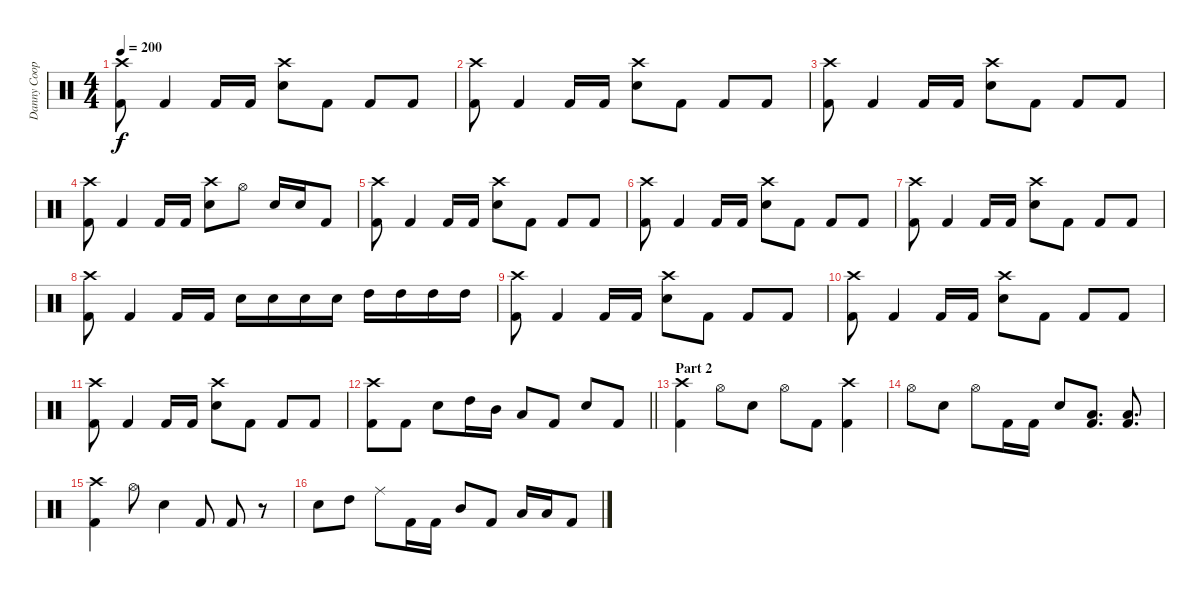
\track ("Danny Cooper" "Danny Coop") {instrument percussion}
\staff {score}
\articulation defaults
\ts (4 4)
\tempo 200
\clef neutral
\ks c
("Crash high (hit)" "Kick (hit) 2").8{dy f} "Kick (hit) 2".4 "Kick (hit) 2".16 "Kick (hit) 2".16 ("Crash high (hit)" "Snare (hit) 2").8 "Kick (hit) 2".8 "Kick (hit) 2".8 "Kick (hit) 2".8 |
("Crash high (hit)" "Kick (hit) 2").8 "Kick (hit) 2".4 "Kick (hit) 2".16 "Kick (hit) 2".16 ("Crash high (hit)" "Snare (hit) 2").8 "Kick (hit) 2".8 "Kick (hit) 2".8 "Kick (hit) 2".8 |
("Crash high (hit)" "Kick (hit) 2").8 "Kick (hit) 2".4 "Kick (hit) 2".16 "Kick (hit) 2".16 ("Crash high (hit)" "Snare (hit) 2").8 "Kick (hit) 2".8 "Kick (hit) 2".8 "Kick (hit) 2".8 |
("Crash high (hit)" "Kick (hit) 2").8 "Kick (hit) 2".4 "Kick (hit) 2".16 "Kick (hit) 2".16 ("Crash high (hit)" "Snare (hit) 2").8 "Hi-Hat (open)".8 "Snare (hit) 2".16 "Snare (hit) 2".16 "Kick (hit) 2".8 |
("Crash high (hit)" "Kick (hit) 2").8 "Kick (hit) 2".4 "Kick (hit) 2".16 "Kick (hit) 2".16 ("Crash high (hit)" "Snare (hit) 2").8 "Kick (hit) 2".8 "Kick (hit) 2".8 "Kick (hit) 2".8 |
("Crash high (hit)" "Kick (hit) 2").8 "Kick (hit) 2".4 "Kick (hit) 2".16 "Kick (hit) 2".16 ("Crash high (hit)" "Snare (hit) 2").8 "Kick (hit) 2".8 "Kick (hit) 2".8 "Kick (hit) 2".8 |
("Crash high (hit)" "Kick (hit) 2").8 "Kick (hit) 2".4 "Kick (hit) 2".16 "Kick (hit) 2".16 ("Crash high (hit)" "Snare (hit) 2").8 "Kick (hit) 2".8 "Kick (hit) 2".8 "Kick (hit) 2".8 |
("Crash high (hit)" "Kick (hit) 2").8 "Kick (hit) 2".4 "Kick (hit) 2".16 "Kick (hit) 2".16 "Snare (hit) 2".16 "Snare (hit) 2".16 "Snare (hit) 2".16 "Snare (hit) 2".16 "High Tom (hit)".16 "High Tom (hit)".16 "High Tom (hit)".16 "High Tom (hit)".16 |
("Crash high (hit)" "Kick (hit) 2").8 "Kick (hit) 2".4 "Kick (hit) 2".16 "Kick (hit) 2".16 ("Crash high (hit)" "Snare (hit) 2").8 "Kick (hit) 2".8 "Kick (hit) 2".8 "Kick (hit) 2".8 |
("Crash high (hit)" "Kick (hit) 2").8 "Kick (hit) 2".4 "Kick (hit) 2".16 "Kick (hit) 2".16 ("Crash high (hit)" "Snare (hit) 2").8 "Kick (hit) 2".8 "Kick (hit) 2".8 "Kick (hit) 2".8 |
("Crash high (hit)" "Kick (hit) 2").8 "Kick (hit) 2".4 "Kick (hit) 2".16 "Kick (hit) 2".16 ("Crash high (hit)" "Snare (hit) 2").8 "Kick (hit) 2".8 "Kick (hit) 2".8 "Kick (hit) 2".8 |
\barLineRight lightlight
("Crash high (hit)" "Kick (hit) 2").8 "Kick (hit) 2".8 "Snare (hit) 2".8 "High Tom (hit)".16 "Mid Tom (hit)".16 "Low Tom (hit)".8 "Kick (hit) 2".8 "Snare (hit) 2".8 "Kick (hit) 2".8 |
\section ("" "Part 2")
("Crash high (hit)" "Kick (hit) 2").4 "Hi-Hat (open)".8 "Snare (hit) 2".8 "Hi-Hat (open)".8 "Kick (hit) 2".8 ("Crash high (hit)" "Kick (hit) 2").4 |
"Hi-Hat (open)".8 "Snare (hit) 2".8 "Hi-Hat (open)".8 "Kick (hit) 2".16 "Kick (hit) 2".16 "Snare (hit) 2".8 ("Low Tom (hit)" "Kick (hit) 2").8{d} ("Low Tom (hit)" "Kick (hit) 2").8{d} |
("Crash high (hit)" "Kick (hit) 2").4 "Hi-Hat (open)".8 "Snare (hit) 2".4 "Kick (hit) 2".8 "Kick (hit) 2".8 r.8 |
"Snare (hit) 2".8 "High Tom (hit)".8 "Ride (middle)".8 "Kick (hit) 2".16 "Kick (hit) 2".16 "Mid Tom (hit)".8 "Kick (hit) 2".8 "Low Tom (hit)".16 "Low Tom (hit)".16 "Kick (hit) 2".8
